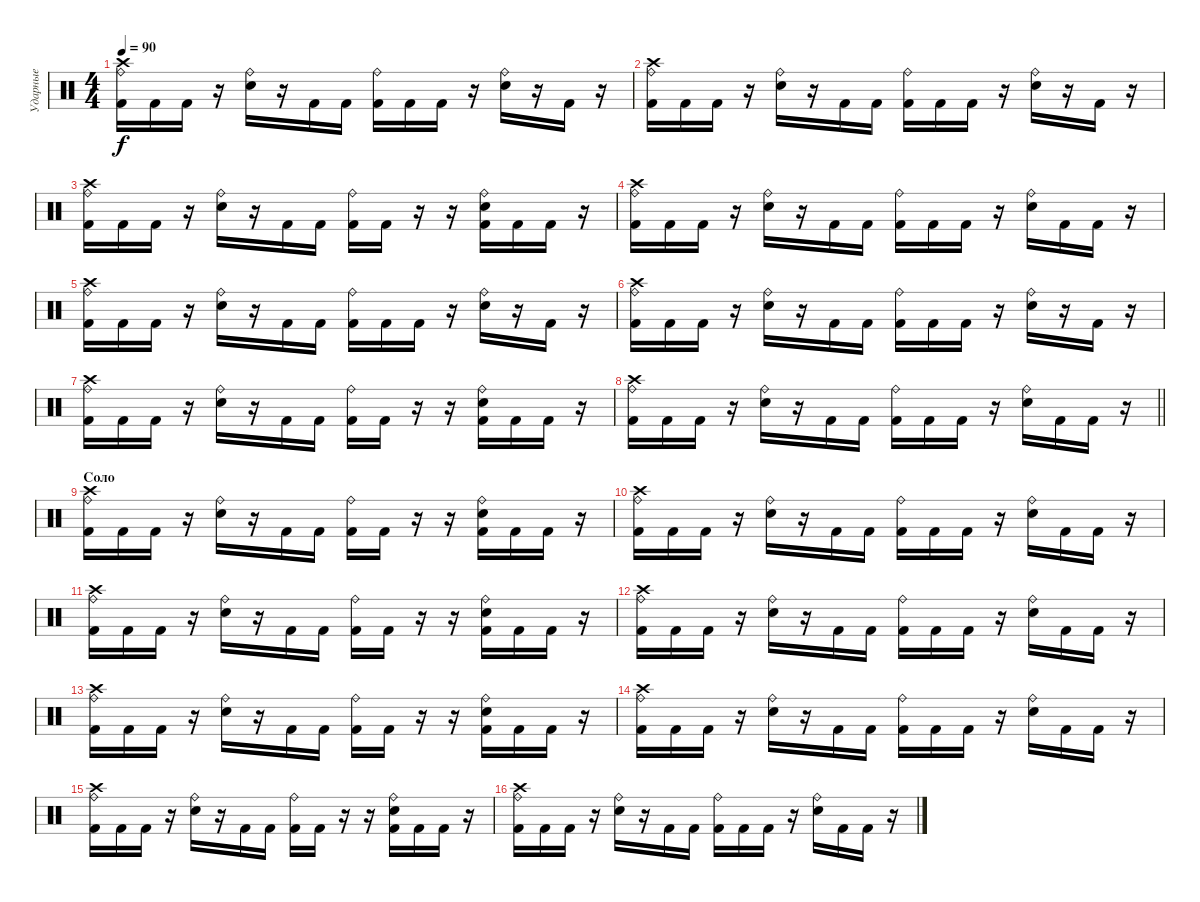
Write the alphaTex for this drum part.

\track ("Ударные" "Ударные") {instrument percussion}
\staff {score}
\articulation defaults
\ts (4 4)
\tempo 90
\clef neutral
\ks c
("Ride (bell)" "Crash high (hit)" "Kick (hit) 2").16{dy f} "Kick (hit) 2".16 "Kick (hit) 2".16 r.16 ("Ride (bell)" "Snare (hit) 2").16 r.16 "Kick (hit) 2".16 "Kick (hit) 2".16 ("Ride (bell)" "Kick (hit) 2").16 "Kick (hit) 2".16 "Kick (hit) 2".16 r.16 ("Ride (bell)" "Snare (hit) 2").16 r.16 "Kick (hit) 2".16 r.16 |
("Ride (bell)" "Crash high (hit)" "Kick (hit) 2").16 "Kick (hit) 2".16 "Kick (hit) 2".16 r.16 ("Ride (bell)" "Snare (hit) 2").16 r.16 "Kick (hit) 2".16 "Kick (hit) 2".16 ("Ride (bell)" "Kick (hit) 2").16 "Kick (hit) 2".16 "Kick (hit) 2".16 r.16 ("Ride (bell)" "Snare (hit) 2").16 r.16 "Kick (hit) 2".16 r.16 |
("Ride (bell)" "Crash high (hit)" "Kick (hit) 2").16 "Kick (hit) 2".16 "Kick (hit) 2".16 r.16 ("Ride (bell)" "Snare (hit) 2").16 r.16 "Kick (hit) 2".16 "Kick (hit) 2".16 ("Ride (bell)" "Kick (hit) 2").16 "Kick (hit) 2".16 r.16 r.16 ("Ride (bell)" "Snare (hit) 2" "Kick (hit) 2").16 "Kick (hit) 2".16 "Kick (hit) 2".16 r.16 |
("Ride (bell)" "Crash high (hit)" "Kick (hit) 2").16 "Kick (hit) 2".16 "Kick (hit) 2".16 r.16 ("Ride (bell)" "Snare (hit) 2").16 r.16 "Kick (hit) 2".16 "Kick (hit) 2".16 ("Ride (bell)" "Kick (hit) 2").16 "Kick (hit) 2".16 "Kick (hit) 2".16 r.16 ("Ride (bell)" "Snare (hit) 2").16 "Kick (hit) 2".16 "Kick (hit) 2".16 r.16 |
("Ride (bell)" "Crash high (hit)" "Kick (hit) 2").16 "Kick (hit) 2".16 "Kick (hit) 2".16 r.16 ("Ride (bell)" "Snare (hit) 2").16 r.16 "Kick (hit) 2".16 "Kick (hit) 2".16 ("Ride (bell)" "Kick (hit) 2").16 "Kick (hit) 2".16 "Kick (hit) 2".16 r.16 ("Ride (bell)" "Snare (hit) 2").16 r.16 "Kick (hit) 2".16 r.16 |
("Ride (bell)" "Crash high (hit)" "Kick (hit) 2").16 "Kick (hit) 2".16 "Kick (hit) 2".16 r.16 ("Ride (bell)" "Snare (hit) 2").16 r.16 "Kick (hit) 2".16 "Kick (hit) 2".16 ("Ride (bell)" "Kick (hit) 2").16 "Kick (hit) 2".16 "Kick (hit) 2".16 r.16 ("Ride (bell)" "Snare (hit) 2").16 r.16 "Kick (hit) 2".16 r.16 |
("Ride (bell)" "Crash high (hit)" "Kick (hit) 2").16 "Kick (hit) 2".16 "Kick (hit) 2".16 r.16 ("Ride (bell)" "Snare (hit) 2").16 r.16 "Kick (hit) 2".16 "Kick (hit) 2".16 ("Ride (bell)" "Kick (hit) 2").16 "Kick (hit) 2".16 r.16 r.16 ("Ride (bell)" "Snare (hit) 2" "Kick (hit) 2").16 "Kick (hit) 2".16 "Kick (hit) 2".16 r.16 |
\barLineRight lightlight
("Ride (bell)" "Crash high (hit)" "Kick (hit) 2").16 "Kick (hit) 2".16 "Kick (hit) 2".16 r.16 ("Ride (bell)" "Snare (hit) 2").16 r.16 "Kick (hit) 2".16 "Kick (hit) 2".16 ("Ride (bell)" "Kick (hit) 2").16 "Kick (hit) 2".16 "Kick (hit) 2".16 r.16 ("Ride (bell)" "Snare (hit) 2").16 "Kick (hit) 2".16 "Kick (hit) 2".16 r.16 |
\section ("" "Соло")
("Ride (bell)" "Crash high (hit)" "Kick (hit) 2").16 "Kick (hit) 2".16 "Kick (hit) 2".16 r.16 ("Ride (bell)" "Snare (hit) 2").16 r.16 "Kick (hit) 2".16 "Kick (hit) 2".16 ("Ride (bell)" "Kick (hit) 2").16 "Kick (hit) 2".16 r.16 r.16 ("Ride (bell)" "Snare (hit) 2" "Kick (hit) 2").16 "Kick (hit) 2".16 "Kick (hit) 2".16 r.16 |
("Ride (bell)" "Crash high (hit)" "Kick (hit) 2").16 "Kick (hit) 2".16 "Kick (hit) 2".16 r.16 ("Ride (bell)" "Snare (hit) 2").16 r.16 "Kick (hit) 2".16 "Kick (hit) 2".16 ("Ride (bell)" "Kick (hit) 2").16 "Kick (hit) 2".16 "Kick (hit) 2".16 r.16 ("Ride (bell)" "Snare (hit) 2").16 "Kick (hit) 2".16 "Kick (hit) 2".16 r.16 |
("Ride (bell)" "Crash high (hit)" "Kick (hit) 2").16 "Kick (hit) 2".16 "Kick (hit) 2".16 r.16 ("Ride (bell)" "Snare (hit) 2").16 r.16 "Kick (hit) 2".16 "Kick (hit) 2".16 ("Ride (bell)" "Kick (hit) 2").16 "Kick (hit) 2".16 r.16 r.16 ("Ride (bell)" "Snare (hit) 2" "Kick (hit) 2").16 "Kick (hit) 2".16 "Kick (hit) 2".16 r.16 |
("Ride (bell)" "Crash high (hit)" "Kick (hit) 2").16 "Kick (hit) 2".16 "Kick (hit) 2".16 r.16 ("Ride (bell)" "Snare (hit) 2").16 r.16 "Kick (hit) 2".16 "Kick (hit) 2".16 ("Ride (bell)" "Kick (hit) 2").16 "Kick (hit) 2".16 "Kick (hit) 2".16 r.16 ("Ride (bell)" "Snare (hit) 2").16 "Kick (hit) 2".16 "Kick (hit) 2".16 r.16 |
("Ride (bell)" "Crash high (hit)" "Kick (hit) 2").16 "Kick (hit) 2".16 "Kick (hit) 2".16 r.16 ("Ride (bell)" "Snare (hit) 2").16 r.16 "Kick (hit) 2".16 "Kick (hit) 2".16 ("Ride (bell)" "Kick (hit) 2").16 "Kick (hit) 2".16 r.16 r.16 ("Ride (bell)" "Snare (hit) 2" "Kick (hit) 2").16 "Kick (hit) 2".16 "Kick (hit) 2".16 r.16 |
("Ride (bell)" "Crash high (hit)" "Kick (hit) 2").16 "Kick (hit) 2".16 "Kick (hit) 2".16 r.16 ("Ride (bell)" "Snare (hit) 2").16 r.16 "Kick (hit) 2".16 "Kick (hit) 2".16 ("Ride (bell)" "Kick (hit) 2").16 "Kick (hit) 2".16 "Kick (hit) 2".16 r.16 ("Ride (bell)" "Snare (hit) 2").16 "Kick (hit) 2".16 "Kick (hit) 2".16 r.16 |
("Ride (bell)" "Crash high (hit)" "Kick (hit) 2").16 "Kick (hit) 2".16 "Kick (hit) 2".16 r.16 ("Ride (bell)" "Snare (hit) 2").16 r.16 "Kick (hit) 2".16 "Kick (hit) 2".16 ("Ride (bell)" "Kick (hit) 2").16 "Kick (hit) 2".16 r.16 r.16 ("Ride (bell)" "Snare (hit) 2" "Kick (hit) 2").16 "Kick (hit) 2".16 "Kick (hit) 2".16 r.16 |
("Ride (bell)" "Crash high (hit)" "Kick (hit) 2").16 "Kick (hit) 2".16 "Kick (hit) 2".16 r.16 ("Ride (bell)" "Snare (hit) 2").16 r.16 "Kick (hit) 2".16 "Kick (hit) 2".16 ("Ride (bell)" "Kick (hit) 2").16 "Kick (hit) 2".16 "Kick (hit) 2".16 r.16 ("Ride (bell)" "Snare (hit) 2").16 "Kick (hit) 2".16 "Kick (hit) 2".16 r.16
